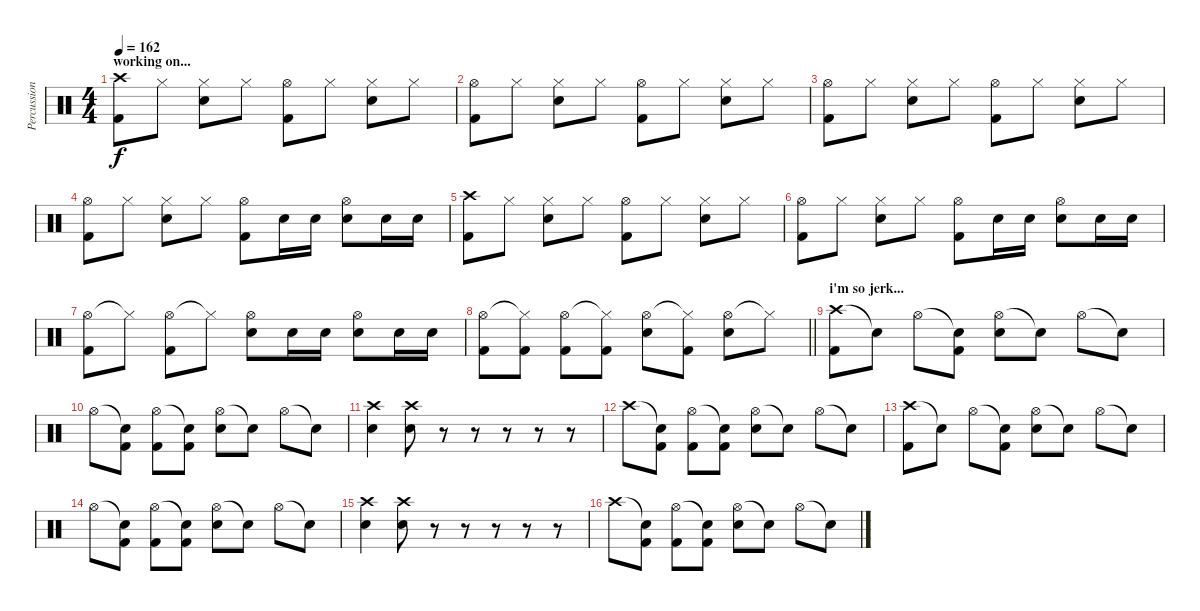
\track ("Percussioni" "Percussion") {instrument percussion}
\staff {score}
\articulation defaults
\ts (4 4)
\section ("" "working on...")
\tempo 162
\clef neutral
\ks c
("Crash high (hit)" "Kick (hit) 2").8{dy f} "Hi-Hat (closed)".8 ("Hi-Hat (closed)" "Snare (hit) 2").8 "Hi-Hat (closed)".8 ("Hi-Hat (open)" "Kick (hit) 2").8 "Hi-Hat (closed)".8 ("Hi-Hat (closed)" "Snare (hit) 2").8 "Hi-Hat (closed)".8 |
("Hi-Hat (open)" "Kick (hit) 2").8 "Hi-Hat (closed)".8 ("Hi-Hat (closed)" "Snare (hit) 2").8 "Hi-Hat (closed)".8 ("Hi-Hat (open)" "Kick (hit) 2").8 "Hi-Hat (closed)".8 ("Hi-Hat (closed)" "Snare (hit) 2").8 "Hi-Hat (closed)".8 |
("Hi-Hat (open)" "Kick (hit) 2").8 "Hi-Hat (closed)".8 ("Hi-Hat (closed)" "Snare (hit) 2").8 "Hi-Hat (closed)".8 ("Hi-Hat (open)" "Kick (hit) 2").8 "Hi-Hat (closed)".8 ("Hi-Hat (closed)" "Snare (hit) 2").8 "Hi-Hat (closed)".8 |
("Hi-Hat (open)" "Kick (hit) 2").8 "Hi-Hat (closed)".8 ("Hi-Hat (closed)" "Snare (hit) 2").8 "Hi-Hat (closed)".8 ("Hi-Hat (open)" "Kick (hit) 2").8 "Snare (hit) 2".16 "Snare (hit) 2".16 ("Hi-Hat (open)" "Snare (hit) 2").8 "Snare (hit) 2".16 "Snare (hit) 2".16 |
("Crash high (hit)" "Kick (hit) 2").8 "Hi-Hat (closed)".8 ("Hi-Hat (closed)" "Snare (hit) 2").8 "Hi-Hat (closed)".8 ("Hi-Hat (open)" "Kick (hit) 2").8 "Hi-Hat (closed)".8 ("Hi-Hat (closed)" "Snare (hit) 2").8 "Hi-Hat (closed)".8 |
("Hi-Hat (open)" "Kick (hit) 2").8 "Hi-Hat (closed)".8 ("Hi-Hat (closed)" "Snare (hit) 2").8 "Hi-Hat (closed)".8 ("Hi-Hat (open)" "Kick (hit) 2").8 "Snare (hit) 2".16 "Snare (hit) 2".16 ("Hi-Hat (open)" "Snare (hit) 2").8 "Snare (hit) 2".16 "Snare (hit) 2".16 |
("Hi-Hat (open)" "Kick (hit) 2").8 "Hi-Hat (closed)"{t}.8 ("Hi-Hat (open)" "Kick (hit) 2").8 "Hi-Hat (closed)"{t}.8 ("Hi-Hat (open)" "Snare (hit) 2").8 "Snare (hit) 2".16 "Snare (hit) 2".16 ("Hi-Hat (open)" "Snare (hit) 2").8 "Snare (hit) 2".16 "Snare (hit) 2".16 |
\barLineRight lightlight
("Hi-Hat (open)" "Kick (hit) 2").8 ("Hi-Hat (closed)"{t} "Kick (hit) 2").8 ("Hi-Hat (open)" "Kick (hit) 2").8 ("Hi-Hat (closed)"{t} "Kick (hit) 2").8 ("Hi-Hat (open)" "Snare (hit) 2").8 ("Hi-Hat (closed)"{t} "Kick (hit) 2").8 ("Hi-Hat (open)" "Snare (hit) 2").8 "Hi-Hat (closed)"{t}.8 |
\section ("" "i'm so jerk...")
("Crash high (hit)" "Kick (hit) 2").8 "Snare (hit)"{t}.8 "Hi-Hat (open)".8 ("Snare (hit)"{t} "Kick (hit) 2").8 ("Hi-Hat (open)" "Snare (hit) 2").8 "Snare (hit)"{t}.8 "Hi-Hat (open)".8 "Snare (hit)"{t}.8 |
"Hi-Hat (open)".8 ("Snare (hit)"{t} "Kick (hit) 2").8 ("Hi-Hat (open)" "Kick (hit) 2").8 ("Snare (hit)"{t} "Kick (hit) 2").8 ("Hi-Hat (open)" "Snare (hit) 2").8 "Snare (hit)"{t}.8 "Hi-Hat (open)".8 "Snare (hit)"{t}.8 |
("Crash high (hit)" "Snare (hit) 2").4 ("Crash high (hit)" "Snare (hit) 2").8 r.8 r.8 r.8 r.8 r.8 |
"Crash high (hit)".8 ("Snare (hit)"{t} "Kick (hit) 2").8 ("Hi-Hat (open)" "Kick (hit) 2").8 ("Snare (hit)"{t} "Kick (hit) 2").8 ("Hi-Hat (open)" "Snare (hit) 2").8 "Snare (hit)"{t}.8 "Hi-Hat (open)".8 "Snare (hit)"{t}.8 |
("Crash high (hit)" "Kick (hit) 2").8 "Snare (hit)"{t}.8 "Hi-Hat (open)".8 ("Snare (hit)"{t} "Kick (hit) 2").8 ("Hi-Hat (open)" "Snare (hit) 2").8 "Snare (hit)"{t}.8 "Hi-Hat (open)".8 "Snare (hit)"{t}.8 |
"Hi-Hat (open)".8 ("Snare (hit)"{t} "Kick (hit) 2").8 ("Hi-Hat (open)" "Kick (hit) 2").8 ("Snare (hit)"{t} "Kick (hit) 2").8 ("Hi-Hat (open)" "Snare (hit) 2").8 "Snare (hit)"{t}.8 "Hi-Hat (open)".8 "Snare (hit)"{t}.8 |
("Crash high (hit)" "Snare (hit) 2").4 ("Crash high (hit)" "Snare (hit) 2").8 r.8 r.8 r.8 r.8 r.8 |
"Crash high (hit)".8 ("Snare (hit)"{t} "Kick (hit) 2").8 ("Hi-Hat (open)" "Kick (hit) 2").8 ("Snare (hit)"{t} "Kick (hit) 2").8 ("Hi-Hat (open)" "Snare (hit) 2").8 "Snare (hit)"{t}.8 "Hi-Hat (open)".8 "Snare (hit)"{t}.8
